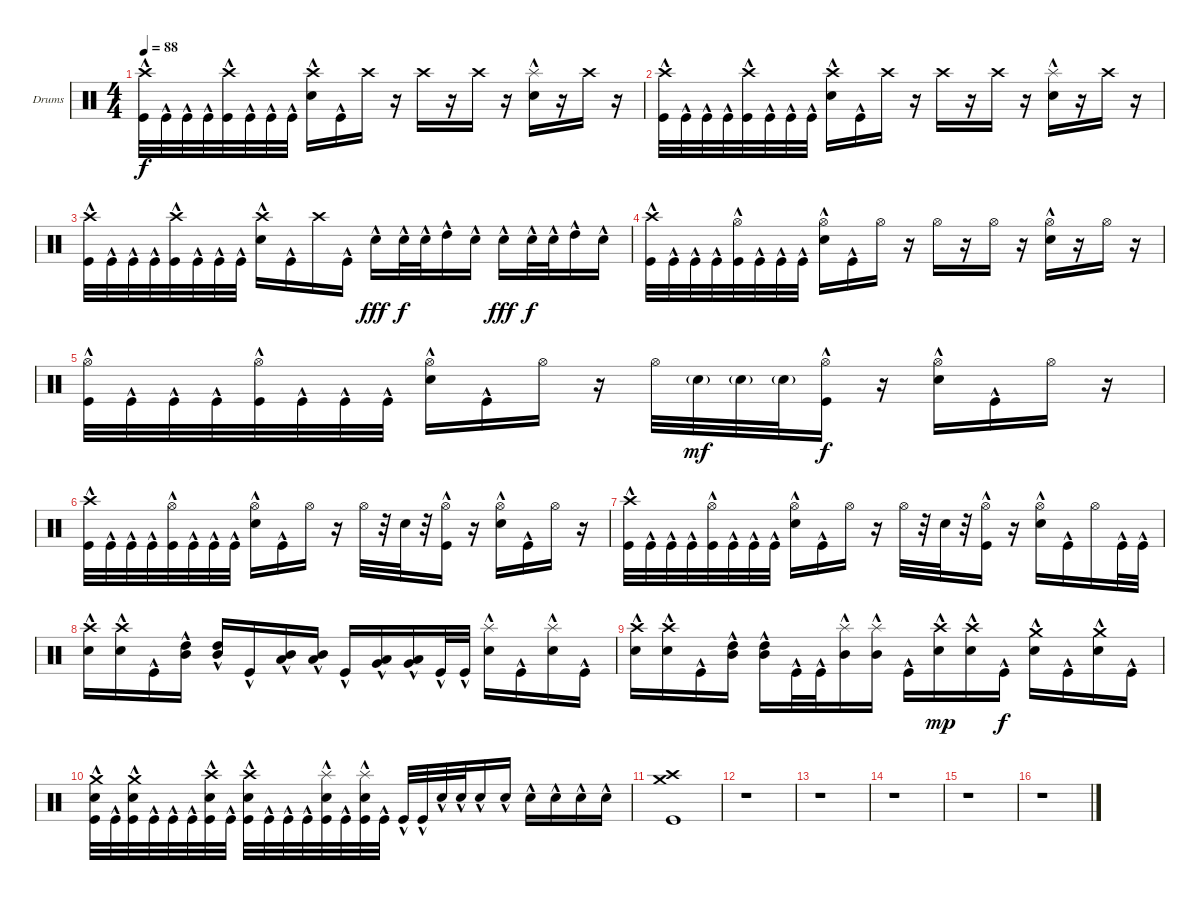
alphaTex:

\bracketExtendMode groupsimilarinstruments
\firstSystemTrackNameOrientation horizontal
\otherSystemsTrackNameOrientation horizontal
\track ("Drumkit" "Drums") {instrument percussion}
\staff {score}
\articulation defaults
\ts (4 4)
\tempo 88
\clef neutral
\ks c
("Kick (hit)"{hac} "Crash high (hit)").32{dy f} "Kick (hit)"{hac}.32 "Kick (hit)"{hac}.32 "Kick (hit)"{hac}.32 ("Kick (hit)"{hac} "Crash high (hit)").32 "Kick (hit)"{hac}.32 "Kick (hit)"{hac}.32 "Kick (hit)"{hac}.32 ("Snare (hit) 2"{hac} "Crash high (hit)").16 "Kick (hit)"{hac}.16 "Crash high (hit)".16 r.16 "Crash high (hit)".16 r.16 "Crash high (hit)".16 r.16 ("Snare (hit) 2"{hac} "Splash (hit)").16 r.16 "Crash high (hit)".16 r.16 |
("Kick (hit)"{hac} "Crash high (hit)").32 "Kick (hit)"{hac}.32 "Kick (hit)"{hac}.32 "Kick (hit)"{hac}.32 ("Kick (hit)"{hac} "Crash high (hit)").32 "Kick (hit)"{hac}.32 "Kick (hit)"{hac}.32 "Kick (hit)"{hac}.32 ("Snare (hit) 2"{hac} "Crash high (hit)").16 "Kick (hit)"{hac}.16 "Crash high (hit)".16 r.16 "Crash high (hit)".16 r.16 "Crash high (hit)".16 r.16 ("Snare (hit) 2"{hac} "Splash (hit)").16 r.16 "Crash high (hit)".16 r.16 |
("Kick (hit)"{hac} "Crash high (hit)").32 "Kick (hit)"{hac}.32 "Kick (hit)"{hac}.32 "Kick (hit)"{hac}.32 ("Kick (hit)"{hac} "Crash high (hit)").32 "Kick (hit)"{hac}.32 "Kick (hit)"{hac}.32 "Kick (hit)"{hac}.32 ("Snare (hit) 2"{hac} "Crash high (hit)").16 "Kick (hit)"{hac}.16 "Crash high (hit)".16 "Kick (hit)"{hac}.16 "Snare (hit) 2"{hac}.16{dy fff} "Snare (hit) 2"{hac}.32{dy f} "Snare (hit) 2"{hac}.32 "High Tom (hit)"{hac}.16 "Snare (hit) 2"{hac}.16 "Snare (hit) 2"{hac}.16{dy fff} "Snare (hit) 2"{hac}.32{dy f} "Snare (hit) 2"{hac}.32 "High Tom (hit)"{hac}.16 "Snare (hit) 2"{hac}.16 |
("Kick (hit)"{hac} "Crash high (hit)").32 "Kick (hit)"{hac}.32 "Kick (hit)"{hac}.32 "Kick (hit)"{hac}.32 ("Kick (hit)"{hac} "Hi-Hat (open)").32 "Kick (hit)"{hac}.32 "Kick (hit)"{hac}.32 "Kick (hit)"{hac}.32 ("Snare (hit) 2"{hac} "Hi-Hat (open)").16 "Kick (hit)"{hac}.16 "Hi-Hat (open)".16 r.16 "Hi-Hat (open)".16 r.16 "Hi-Hat (open)".16 r.16 ("Snare (hit) 2"{hac} "Hi-Hat (open)").16 r.16 "Hi-Hat (open)".16 r.16 |
("Kick (hit)"{hac} "Hi-Hat (open)").32 "Kick (hit)"{hac}.32 "Kick (hit)"{hac}.32 "Kick (hit)"{hac}.32 ("Kick (hit)"{hac} "Hi-Hat (open)").32 "Kick (hit)"{hac}.32 "Kick (hit)"{hac}.32 "Kick (hit)"{hac}.32 ("Snare (hit) 2"{hac} "Hi-Hat (open)").16 "Kick (hit)"{hac}.16 "Hi-Hat (open)".16 r.16 "Hi-Hat (open)".32 "Snare (hit) 2"{g}.32{dy mf} "Snare (hit) 2"{g}.32 "Snare (hit) 2"{g}.32 ("Kick (hit)"{hac} "Hi-Hat (open)").16{dy f} r.16 ("Snare (hit) 2"{hac} "Hi-Hat (open)").16 "Kick (hit)"{hac}.16 "Hi-Hat (open)".16 r.16 |
("Kick (hit)"{hac} "Crash high (hit)").32 "Kick (hit)"{hac}.32 "Kick (hit)"{hac}.32 "Kick (hit)"{hac}.32 ("Kick (hit)"{hac} "Hi-Hat (open)").32 "Kick (hit)"{hac}.32 "Kick (hit)"{hac}.32 "Kick (hit)"{hac}.32 ("Snare (hit) 2"{hac} "Hi-Hat (open)").16 "Kick (hit)"{hac}.16 "Hi-Hat (open)".16 r.16 "Hi-Hat (open)".32 r.32 "Snare (hit) 2".32 r.32 ("Kick (hit)"{hac} "Hi-Hat (open)").16 r.16 ("Snare (hit) 2"{hac} "Hi-Hat (open)").16 "Kick (hit)"{hac}.16 "Hi-Hat (open)".16 r.16 |
("Kick (hit)"{hac} "Crash high (hit)").32 "Kick (hit)"{hac}.32 "Kick (hit)"{hac}.32 "Kick (hit)"{hac}.32 ("Kick (hit)"{hac} "Hi-Hat (open)").32 "Kick (hit)"{hac}.32 "Kick (hit)"{hac}.32 "Kick (hit)"{hac}.32 ("Snare (hit) 2"{hac} "Hi-Hat (open)").16 "Kick (hit)"{hac}.16 "Hi-Hat (open)".16 r.16 "Hi-Hat (open)".32 r.32 "Snare (hit) 2".32 r.32 ("Kick (hit)"{hac} "Hi-Hat (open)").16 r.16 ("Snare (hit) 2"{hac} "Hi-Hat (open)").16 "Kick (hit)"{hac}.16 "Hi-Hat (open)".16 "Kick (hit)"{hac}.32 "Kick (hit)"{hac}.32 |
("Snare (hit) 2"{hac} "Crash high (hit)").16 ("Snare (hit) 2"{hac} "Crash high (hit)").16 "Kick (hit)"{hac}.16 ("High Tom (hit)"{hac} "Mid Tom (hit)"{hac}).16 ("High Tom (hit)"{hac} "Mid Tom (hit)"{hac}).16 "Kick (hit)"{hac}.16 ("Mid Tom (hit)"{hac} "Low Tom (hit)"{hac}).16 ("Mid Tom (hit)"{hac} "Low Tom (hit)"{hac}).16 "Kick (hit)"{hac}.16 ("Low Tom (hit)"{hac} "Very Low Tom (hit)"{hac}).16 ("Low Tom (hit)"{hac} "Very Low Tom (hit)"{hac}).16 "Kick (hit)"{hac}.32 "Kick (hit)"{hac}.32 ("Snare (hit) 2"{hac} "Splash (hit)").16 "Kick (hit)"{hac}.16 ("Snare (hit) 2"{hac} "Splash (hit)").16 "Kick (hit)"{hac}.16 |
("Snare (hit) 2"{hac} "Crash high (hit)").16 ("Snare (hit) 2"{hac} "Crash high (hit)").16 "Kick (hit)"{hac}.16 ("High Tom (hit)"{hac} "Mid Tom (hit)"{hac}).16 ("High Tom (hit)"{hac} "Mid Tom (hit)"{hac}).16 "Kick (hit)"{hac}.32 "Kick (hit)"{hac}.32 ("Mid Tom (hit)"{hac} "Splash (hit)").16 ("Mid Tom (hit)"{hac} "Splash (hit)").16 "Kick (hit)"{hac}.16 ("Snare (hit) 2"{hac} "Crash high (hit)").16{dy mp} ("Snare (hit) 2"{hac} "Crash high (hit)").16 "Kick (hit)"{hac}.16{dy f} ("Snare (hit) 2"{hac} "Crash medium (hit)").16 "Kick (hit)"{hac}.16 ("Snare (hit) 2"{hac} "Crash medium (hit)").16 "Kick (hit)"{hac}.16 |
("Kick (hit)"{hac} "Snare (hit) 2"{hac} "Crash medium (hit)").32 "Kick (hit)"{hac}.32 ("Kick (hit)"{hac} "Snare (hit) 2"{hac} "Crash medium (hit)").32 "Kick (hit)"{hac}.32 "Kick (hit)"{hac}.32 "Kick (hit)"{hac}.32 ("Kick (hit)"{hac} "Snare (hit) 2"{hac} "Crash high (hit)").32 "Kick (hit)"{hac}.32 ("Kick (hit)"{hac} "Snare (hit) 2"{hac} "Crash high (hit)").32 "Kick (hit)"{hac}.32 "Kick (hit)"{hac}.32 "Kick (hit)"{hac}.32 ("Kick (hit)"{hac} "Snare (hit) 2"{hac} "Splash (hit)").32 "Kick (hit)"{hac}.32 ("Kick (hit)"{hac} "Snare (hit) 2"{hac} "Splash (hit)").32 "Kick (hit)"{hac}.32 "Kick (hit)"{hac}.32 "Kick (hit)"{hac}.32 "Snare (hit) 2"{hac}.32 "Snare (hit) 2"{hac}.32 "Snare (hit) 2"{hac}.16 "Snare (hit) 2"{hac}.16 "Snare (hit) 2"{hac}.16 "Snare (hit) 2"{hac}.16 "Snare (hit) 2"{hac}.16 "Snare (hit) 2"{hac}.16 |
("Kick (hit)" "Crash high (hit)" "Crash medium (hit)").1 |
r.1 |
r.1 |
r.1 |
r.1 |
r.1
